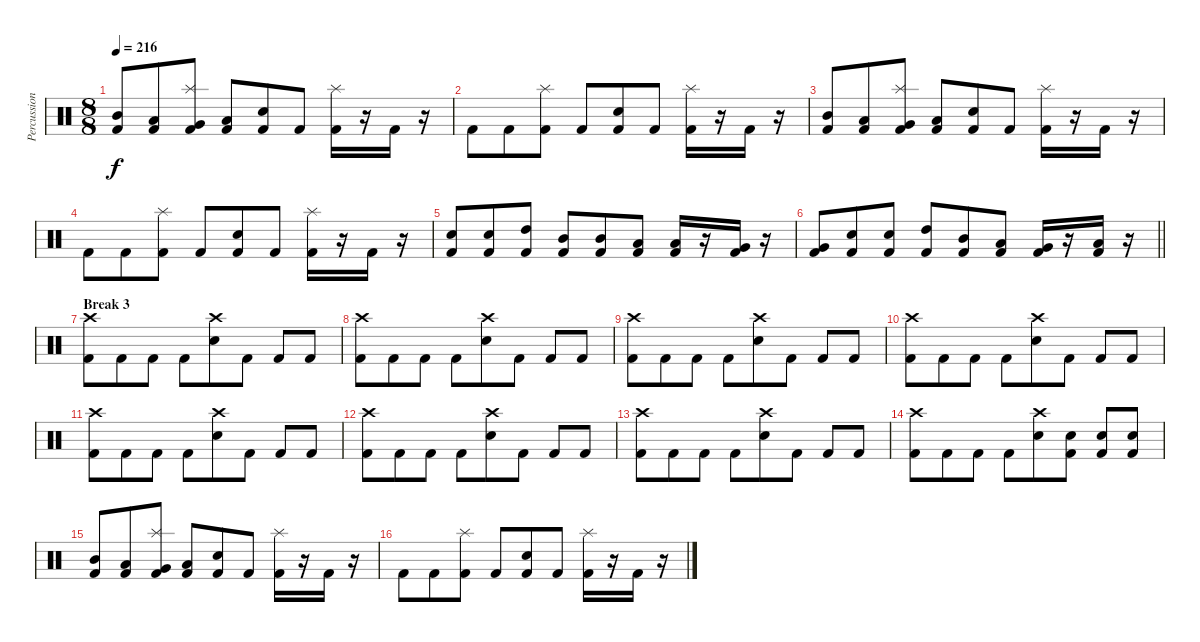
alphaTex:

\track ("Percussions" "Percussion") {instrument percussion}
\staff {score}
\articulation defaults
\ts (8 8)
\tempo 216
\clef neutral
\ks c
("Mid Tom (hit)" "Kick (hit) 2").8{dy f} ("Low Tom (hit)" "Kick (hit) 2").8 ("Splash (hit)" "Very Low Tom (hit)" "Kick (hit) 2").8 ("Low Floor Tom (hit)" "Kick (hit) 2").8 ("Electric Snare (hit)" "Kick (hit) 2").8 "Kick (hit) 2".8 ("Splash (hit)" "Kick (hit) 2").16 r.16 "Kick (hit) 2".16 r.16 |
"Kick (hit) 2".8 "Kick (hit) 2".8 ("Splash (hit)" "Kick (hit) 2").8 "Kick (hit) 2".8 ("Electric Snare (hit)" "Kick (hit) 2").8 "Kick (hit) 2".8 ("Splash (hit)" "Kick (hit) 2").16 r.16 "Kick (hit) 2".16 r.16 |
("Mid Tom (hit)" "Kick (hit) 2").8 ("Low Tom (hit)" "Kick (hit) 2").8 ("Splash (hit)" "Very Low Tom (hit)" "Kick (hit) 2").8 ("Low Floor Tom (hit)" "Kick (hit) 2").8 ("Electric Snare (hit)" "Kick (hit) 2").8 "Kick (hit) 2".8 ("Splash (hit)" "Kick (hit) 2").16 r.16 "Kick (hit) 2".16 r.16 |
"Kick (hit) 2".8 "Kick (hit) 2".8 ("Splash (hit)" "Kick (hit) 2").8 "Kick (hit) 2".8 ("Electric Snare (hit)" "Kick (hit) 2").8 "Kick (hit) 2".8 ("Splash (hit)" "Kick (hit) 2").16 r.16 "Kick (hit) 2".16 r.16 |
("Electric Snare (hit)" "Kick (hit) 2").8 ("Electric Snare (hit)" "Kick (hit) 2").8 ("High Tom (hit)" "Kick (hit) 2").8 ("Mid Tom (hit)" "Kick (hit) 2").8 ("Mid Tom (hit)" "Kick (hit) 2").8 ("Low Tom (hit)" "Kick (hit) 2").8 ("Low Tom (hit)" "Kick (hit) 2").16 r.16 ("Very Low Tom (hit)" "Kick (hit) 2").16 r.16 |
\barLineRight lightlight
("Very Low Tom (hit)" "Kick (hit) 2").8 ("Electric Snare (hit)" "Kick (hit) 2").8 ("Electric Snare (hit)" "Kick (hit) 2").8 ("High Tom (hit)" "Kick (hit) 2").8 ("Mid Tom (hit)" "Kick (hit) 2").8 ("Low Tom (hit)" "Kick (hit) 2").8 ("Very Low Tom (hit)" "Kick (hit) 2").16 r.16 ("Low Floor Tom (hit)" "Kick (hit) 2").16 r.16 |
\section ("" "Break 3")
("Crash high (hit)" "Kick (hit) 2").8 "Kick (hit) 2".8 "Kick (hit) 2".8 "Kick (hit) 2".8 ("Crash high (hit)" "Electric Snare (hit)").8 "Kick (hit) 2".8 "Kick (hit) 2".8 "Kick (hit) 2".8 |
("Crash high (hit)" "Kick (hit) 2").8 "Kick (hit) 2".8 "Kick (hit) 2".8 "Kick (hit) 2".8 ("Crash high (hit)" "Electric Snare (hit)").8 "Kick (hit) 2".8 "Kick (hit) 2".8 "Kick (hit) 2".8 |
("Crash high (hit)" "Kick (hit) 2").8 "Kick (hit) 2".8 "Kick (hit) 2".8 "Kick (hit) 2".8 ("Crash high (hit)" "Electric Snare (hit)").8 "Kick (hit) 2".8 "Kick (hit) 2".8 "Kick (hit) 2".8 |
("Crash high (hit)" "Kick (hit) 2").8 "Kick (hit) 2".8 "Kick (hit) 2".8 "Kick (hit) 2".8 ("Crash high (hit)" "Electric Snare (hit)").8 "Kick (hit) 2".8 "Kick (hit) 2".8 "Kick (hit) 2".8 |
("Crash high (hit)" "Kick (hit) 2").8 "Kick (hit) 2".8 "Kick (hit) 2".8 "Kick (hit) 2".8 ("Crash high (hit)" "Electric Snare (hit)").8 "Kick (hit) 2".8 "Kick (hit) 2".8 "Kick (hit) 2".8 |
("Crash high (hit)" "Kick (hit) 2").8 "Kick (hit) 2".8 "Kick (hit) 2".8 "Kick (hit) 2".8 ("Crash high (hit)" "Electric Snare (hit)").8 "Kick (hit) 2".8 "Kick (hit) 2".8 "Kick (hit) 2".8 |
("Crash high (hit)" "Kick (hit) 2").8 "Kick (hit) 2".8 "Kick (hit) 2".8 "Kick (hit) 2".8 ("Crash high (hit)" "Electric Snare (hit)").8 "Kick (hit) 2".8 "Kick (hit) 2".8 "Kick (hit) 2".8 |
("Crash high (hit)" "Kick (hit) 2").8 "Kick (hit) 2".8 "Kick (hit) 2".8 "Kick (hit) 2".8 ("Crash high (hit)" "Electric Snare (hit)").8 ("Electric Snare (hit)" "Kick (hit) 2").8 ("Electric Snare (hit)" "Kick (hit) 2").8 ("Electric Snare (hit)" "Kick (hit) 2").8 |
("Mid Tom (hit)" "Kick (hit) 2").8 ("Low Tom (hit)" "Kick (hit) 2").8 ("Splash (hit)" "Very Low Tom (hit)" "Kick (hit) 2").8 ("Low Floor Tom (hit)" "Kick (hit) 2").8 ("Electric Snare (hit)" "Kick (hit) 2").8 "Kick (hit) 2".8 ("Splash (hit)" "Kick (hit) 2").16 r.16 "Kick (hit) 2".16 r.16 |
"Kick (hit) 2".8 "Kick (hit) 2".8 ("Splash (hit)" "Kick (hit) 2").8 "Kick (hit) 2".8 ("Electric Snare (hit)" "Kick (hit) 2").8 "Kick (hit) 2".8 ("Splash (hit)" "Kick (hit) 2").16 r.16 "Kick (hit) 2".16 r.16
